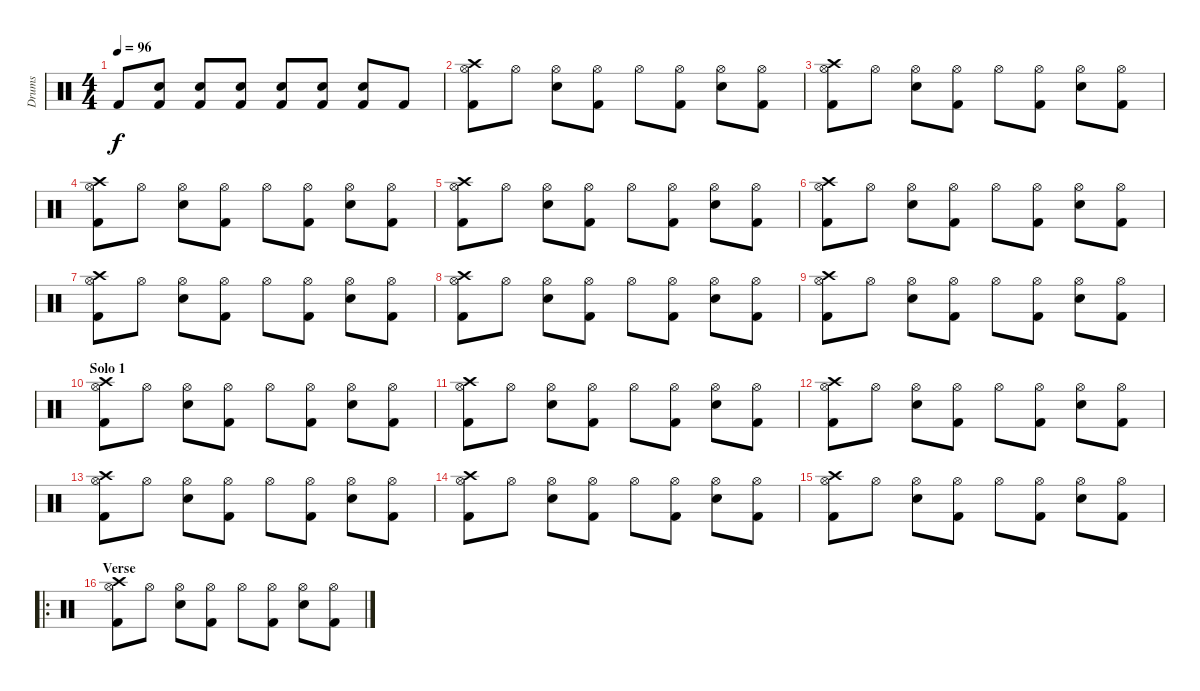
\track ("Drums" "Drums") {instrument percussion}
\staff {score}
\articulation defaults
\ts (4 4)
\tempo 96
\clef neutral
\ks c "Kick (hit) 2".8{dy f}
("Electric Snare (hit)" "Kick (hit) 2").8 ("Electric Snare (hit)" "Kick (hit) 2").8 ("Kick (hit) 2" "Electric Snare (hit)").8 ("Electric Snare (hit)" "Kick (hit) 2").8 ("Electric Snare (hit)" "Kick (hit) 2").8 ("Kick (hit) 2" "Electric Snare (hit)").8 "Kick (hit) 2".8 |
("Kick (hit) 2" "Hi-Hat (open)" "Crash high (hit)").8 "Hi-Hat (open)".8 ("Electric Snare (hit)" "Hi-Hat (open)").8 ("Kick (hit) 2" "Hi-Hat (open)").8 "Hi-Hat (open)".8 ("Kick (hit) 2" "Hi-Hat (open)").8 ("Electric Snare (hit)" "Hi-Hat (open)").8 ("Kick (hit) 2" "Hi-Hat (open)").8 |
("Kick (hit) 2" "Hi-Hat (open)" "Crash high (hit)").8 "Hi-Hat (open)".8 ("Electric Snare (hit)" "Hi-Hat (open)").8 ("Kick (hit) 2" "Hi-Hat (open)").8 "Hi-Hat (open)".8 ("Kick (hit) 2" "Hi-Hat (open)").8 ("Electric Snare (hit)" "Hi-Hat (open)").8 ("Kick (hit) 2" "Hi-Hat (open)").8 |
("Kick (hit) 2" "Hi-Hat (open)" "Crash high (hit)").8 "Hi-Hat (open)".8 ("Electric Snare (hit)" "Hi-Hat (open)").8 ("Kick (hit) 2" "Hi-Hat (open)").8 "Hi-Hat (open)".8 ("Kick (hit) 2" "Hi-Hat (open)").8 ("Electric Snare (hit)" "Hi-Hat (open)").8 ("Kick (hit) 2" "Hi-Hat (open)").8 |
("Kick (hit) 2" "Hi-Hat (open)" "Crash high (hit)").8 "Hi-Hat (open)".8 ("Electric Snare (hit)" "Hi-Hat (open)").8 ("Kick (hit) 2" "Hi-Hat (open)").8 "Hi-Hat (open)".8 ("Kick (hit) 2" "Hi-Hat (open)").8 ("Electric Snare (hit)" "Hi-Hat (open)").8 ("Kick (hit) 2" "Hi-Hat (open)").8 |
("Kick (hit) 2" "Hi-Hat (open)" "Crash high (hit)").8 "Hi-Hat (open)".8 ("Electric Snare (hit)" "Hi-Hat (open)").8 ("Kick (hit) 2" "Hi-Hat (open)").8 "Hi-Hat (open)".8 ("Kick (hit) 2" "Hi-Hat (open)").8 ("Electric Snare (hit)" "Hi-Hat (open)").8 ("Kick (hit) 2" "Hi-Hat (open)").8 |
("Kick (hit) 2" "Hi-Hat (open)" "Crash high (hit)").8 "Hi-Hat (open)".8 ("Electric Snare (hit)" "Hi-Hat (open)").8 ("Kick (hit) 2" "Hi-Hat (open)").8 "Hi-Hat (open)".8 ("Kick (hit) 2" "Hi-Hat (open)").8 ("Electric Snare (hit)" "Hi-Hat (open)").8 ("Kick (hit) 2" "Hi-Hat (open)").8 |
("Kick (hit) 2" "Hi-Hat (open)" "Crash high (hit)").8 "Hi-Hat (open)".8 ("Electric Snare (hit)" "Hi-Hat (open)").8 ("Kick (hit) 2" "Hi-Hat (open)").8 "Hi-Hat (open)".8 ("Kick (hit) 2" "Hi-Hat (open)").8 ("Electric Snare (hit)" "Hi-Hat (open)").8 ("Kick (hit) 2" "Hi-Hat (open)").8 |
("Kick (hit) 2" "Hi-Hat (open)" "Crash high (hit)").8 "Hi-Hat (open)".8 ("Electric Snare (hit)" "Hi-Hat (open)").8 ("Kick (hit) 2" "Hi-Hat (open)").8 "Hi-Hat (open)".8 ("Kick (hit) 2" "Hi-Hat (open)").8 ("Electric Snare (hit)" "Hi-Hat (open)").8 ("Kick (hit) 2" "Hi-Hat (open)").8 |
\section ("" "Solo 1")
("Kick (hit) 2" "Hi-Hat (open)" "Crash high (hit)").8 "Hi-Hat (open)".8 ("Electric Snare (hit)" "Hi-Hat (open)").8 ("Kick (hit) 2" "Hi-Hat (open)").8 "Hi-Hat (open)".8 ("Kick (hit) 2" "Hi-Hat (open)").8 ("Electric Snare (hit)" "Hi-Hat (open)").8 ("Kick (hit) 2" "Hi-Hat (open)").8 |
("Kick (hit) 2" "Hi-Hat (open)" "Crash high (hit)").8 "Hi-Hat (open)".8 ("Electric Snare (hit)" "Hi-Hat (open)").8 ("Kick (hit) 2" "Hi-Hat (open)").8 "Hi-Hat (open)".8 ("Kick (hit) 2" "Hi-Hat (open)").8 ("Electric Snare (hit)" "Hi-Hat (open)").8 ("Kick (hit) 2" "Hi-Hat (open)").8 |
("Kick (hit) 2" "Hi-Hat (open)" "Crash high (hit)").8 "Hi-Hat (open)".8 ("Electric Snare (hit)" "Hi-Hat (open)").8 ("Kick (hit) 2" "Hi-Hat (open)").8 "Hi-Hat (open)".8 ("Kick (hit) 2" "Hi-Hat (open)").8 ("Electric Snare (hit)" "Hi-Hat (open)").8 ("Kick (hit) 2" "Hi-Hat (open)").8 |
("Kick (hit) 2" "Hi-Hat (open)" "Crash high (hit)").8 "Hi-Hat (open)".8 ("Electric Snare (hit)" "Hi-Hat (open)").8 ("Kick (hit) 2" "Hi-Hat (open)").8 "Hi-Hat (open)".8 ("Kick (hit) 2" "Hi-Hat (open)").8 ("Electric Snare (hit)" "Hi-Hat (open)").8 ("Kick (hit) 2" "Hi-Hat (open)").8 |
("Kick (hit) 2" "Hi-Hat (open)" "Crash high (hit)").8 "Hi-Hat (open)".8 ("Electric Snare (hit)" "Hi-Hat (open)").8 ("Kick (hit) 2" "Hi-Hat (open)").8 "Hi-Hat (open)".8 ("Kick (hit) 2" "Hi-Hat (open)").8 ("Electric Snare (hit)" "Hi-Hat (open)").8 ("Kick (hit) 2" "Hi-Hat (open)").8 |
("Kick (hit) 2" "Hi-Hat (open)" "Crash high (hit)").8 "Hi-Hat (open)".8 ("Electric Snare (hit)" "Hi-Hat (open)").8 ("Kick (hit) 2" "Hi-Hat (open)").8 "Hi-Hat (open)".8 ("Kick (hit) 2" "Hi-Hat (open)").8 ("Electric Snare (hit)" "Hi-Hat (open)").8 ("Kick (hit) 2" "Hi-Hat (open)").8 |
\ro
\section ("" "Verse")
("Kick (hit) 2" "Hi-Hat (open)" "Crash high (hit)").8 "Hi-Hat (open)".8 ("Electric Snare (hit)" "Hi-Hat (open)").8 ("Kick (hit) 2" "Hi-Hat (open)").8 "Hi-Hat (open)".8 ("Kick (hit) 2" "Hi-Hat (open)").8 ("Electric Snare (hit)" "Hi-Hat (open)").8 ("Kick (hit) 2" "Hi-Hat (open)").8
